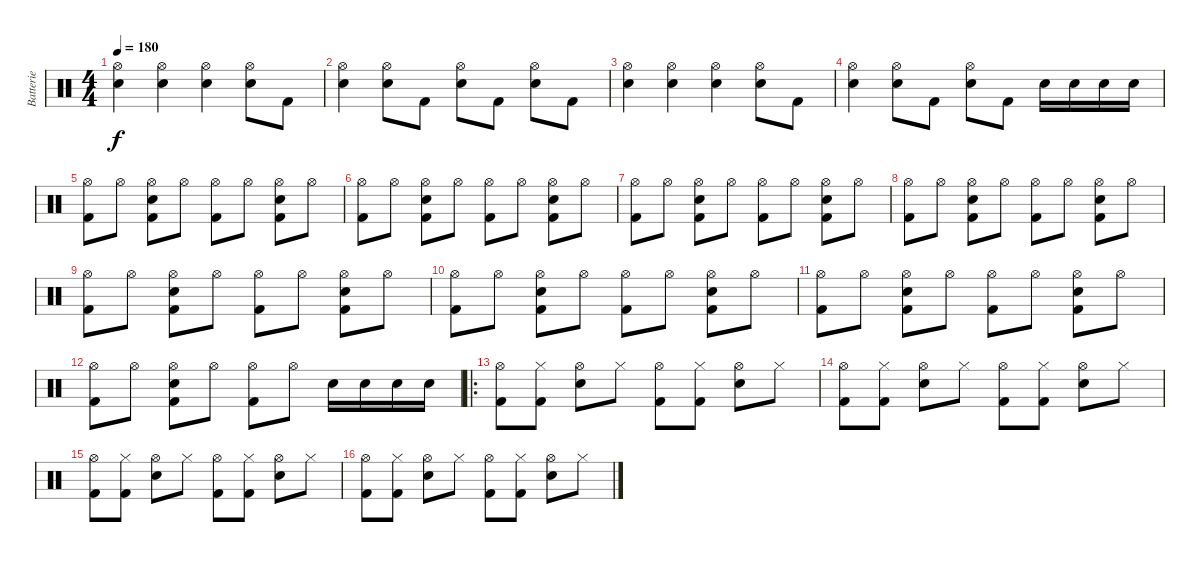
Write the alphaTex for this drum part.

\track ("Batterie" "Batterie") {instrument percussion}
\staff {score}
\articulation defaults
\ts (4 4)
\tempo 180
\clef neutral
\ks c
("Electric Snare (hit)" "Hi-Hat (open)").4{dy f} ("Electric Snare (hit)" "Hi-Hat (open)").4 ("Electric Snare (hit)" "Hi-Hat (open)").4 ("Electric Snare (hit)" "Hi-Hat (open)").8 "Kick (hit) 2".8 |
("Electric Snare (hit)" "Hi-Hat (open)").4 ("Electric Snare (hit)" "Hi-Hat (open)").8 "Kick (hit) 2".8 ("Electric Snare (hit)" "Hi-Hat (open)").8 "Kick (hit) 2".8 ("Electric Snare (hit)" "Hi-Hat (open)").8 "Kick (hit) 2".8 |
("Electric Snare (hit)" "Hi-Hat (open)").4 ("Electric Snare (hit)" "Hi-Hat (open)").4 ("Electric Snare (hit)" "Hi-Hat (open)").4 ("Electric Snare (hit)" "Hi-Hat (open)").8 "Kick (hit) 2".8 |
("Electric Snare (hit)" "Hi-Hat (open)").4 ("Electric Snare (hit)" "Hi-Hat (open)").8 "Kick (hit) 2".8 ("Electric Snare (hit)" "Hi-Hat (open)").8 "Kick (hit) 2".8 "Electric Snare (hit)".16 "Electric Snare (hit)".16 "Electric Snare (hit)".16 "Electric Snare (hit)".16 |
("Hi-Hat (open)" "Kick (hit) 2").8 "Hi-Hat (open)".8 ("Hi-Hat (open)" "Electric Snare (hit)" "Kick (hit) 2").8 "Hi-Hat (open)".8 ("Hi-Hat (open)" "Kick (hit) 2").8 "Hi-Hat (open)".8 ("Hi-Hat (open)" "Electric Snare (hit)" "Kick (hit) 2").8 "Hi-Hat (open)".8 |
("Hi-Hat (open)" "Kick (hit) 2").8 "Hi-Hat (open)".8 ("Hi-Hat (open)" "Electric Snare (hit)" "Kick (hit) 2").8 "Hi-Hat (open)".8 ("Hi-Hat (open)" "Kick (hit) 2").8 "Hi-Hat (open)".8 ("Hi-Hat (open)" "Electric Snare (hit)" "Kick (hit) 2").8 "Hi-Hat (open)".8 |
("Hi-Hat (open)" "Kick (hit) 2").8 "Hi-Hat (open)".8 ("Hi-Hat (open)" "Electric Snare (hit)" "Kick (hit) 2").8 "Hi-Hat (open)".8 ("Hi-Hat (open)" "Kick (hit) 2").8 "Hi-Hat (open)".8 ("Hi-Hat (open)" "Electric Snare (hit)" "Kick (hit) 2").8 "Hi-Hat (open)".8 |
("Hi-Hat (open)" "Kick (hit) 2").8 "Hi-Hat (open)".8 ("Hi-Hat (open)" "Electric Snare (hit)" "Kick (hit) 2").8 "Hi-Hat (open)".8 ("Hi-Hat (open)" "Kick (hit) 2").8 "Hi-Hat (open)".8 ("Hi-Hat (open)" "Electric Snare (hit)" "Kick (hit) 2").8 "Hi-Hat (open)".8 |
("Hi-Hat (open)" "Kick (hit) 2").8 "Hi-Hat (open)".8 ("Hi-Hat (open)" "Electric Snare (hit)" "Kick (hit) 2").8 "Hi-Hat (open)".8 ("Hi-Hat (open)" "Kick (hit) 2").8 "Hi-Hat (open)".8 ("Hi-Hat (open)" "Electric Snare (hit)" "Kick (hit) 2").8 "Hi-Hat (open)".8 |
("Hi-Hat (open)" "Kick (hit) 2").8 "Hi-Hat (open)".8 ("Hi-Hat (open)" "Electric Snare (hit)" "Kick (hit) 2").8 "Hi-Hat (open)".8 ("Hi-Hat (open)" "Kick (hit) 2").8 "Hi-Hat (open)".8 ("Hi-Hat (open)" "Electric Snare (hit)" "Kick (hit) 2").8 "Hi-Hat (open)".8 |
("Hi-Hat (open)" "Kick (hit) 2").8 "Hi-Hat (open)".8 ("Hi-Hat (open)" "Electric Snare (hit)" "Kick (hit) 2").8 "Hi-Hat (open)".8 ("Hi-Hat (open)" "Kick (hit) 2").8 "Hi-Hat (open)".8 ("Hi-Hat (open)" "Electric Snare (hit)" "Kick (hit) 2").8 "Hi-Hat (open)".8 |
("Hi-Hat (open)" "Kick (hit) 2").8 "Hi-Hat (open)".8 ("Hi-Hat (open)" "Electric Snare (hit)" "Kick (hit) 2").8 "Hi-Hat (open)".8 ("Hi-Hat (open)" "Kick (hit) 2").8 "Hi-Hat (open)".8 "Electric Snare (hit)".16 "Electric Snare (hit)".16 "Electric Snare (hit)".16 "Electric Snare (hit)".16 |
\ro
("Hi-Hat (open)" "Kick (hit) 2").8 ("Hi-Hat (closed)" "Kick (hit) 2").8 ("Hi-Hat (open)" "Electric Snare (hit)").8 "Hi-Hat (closed)".8 ("Hi-Hat (open)" "Kick (hit) 2").8 ("Hi-Hat (closed)" "Kick (hit) 2").8 ("Hi-Hat (open)" "Electric Snare (hit)").8 "Hi-Hat (closed)".8 |
("Hi-Hat (open)" "Kick (hit) 2").8 ("Hi-Hat (closed)" "Kick (hit) 2").8 ("Hi-Hat (open)" "Electric Snare (hit)").8 "Hi-Hat (closed)".8 ("Hi-Hat (open)" "Kick (hit) 2").8 ("Hi-Hat (closed)" "Kick (hit) 2").8 ("Hi-Hat (open)" "Electric Snare (hit)").8 "Hi-Hat (closed)".8 |
("Hi-Hat (open)" "Kick (hit) 2").8 ("Hi-Hat (closed)" "Kick (hit) 2").8 ("Hi-Hat (open)" "Electric Snare (hit)").8 "Hi-Hat (closed)".8 ("Hi-Hat (open)" "Kick (hit) 2").8 ("Hi-Hat (closed)" "Kick (hit) 2").8 ("Hi-Hat (open)" "Electric Snare (hit)").8 "Hi-Hat (closed)".8 |
("Hi-Hat (open)" "Kick (hit) 2").8 ("Hi-Hat (closed)" "Kick (hit) 2").8 ("Hi-Hat (open)" "Electric Snare (hit)").8 "Hi-Hat (closed)".8 ("Hi-Hat (open)" "Kick (hit) 2").8 ("Hi-Hat (closed)" "Kick (hit) 2").8 ("Hi-Hat (open)" "Electric Snare (hit)").8 "Hi-Hat (closed)".8
